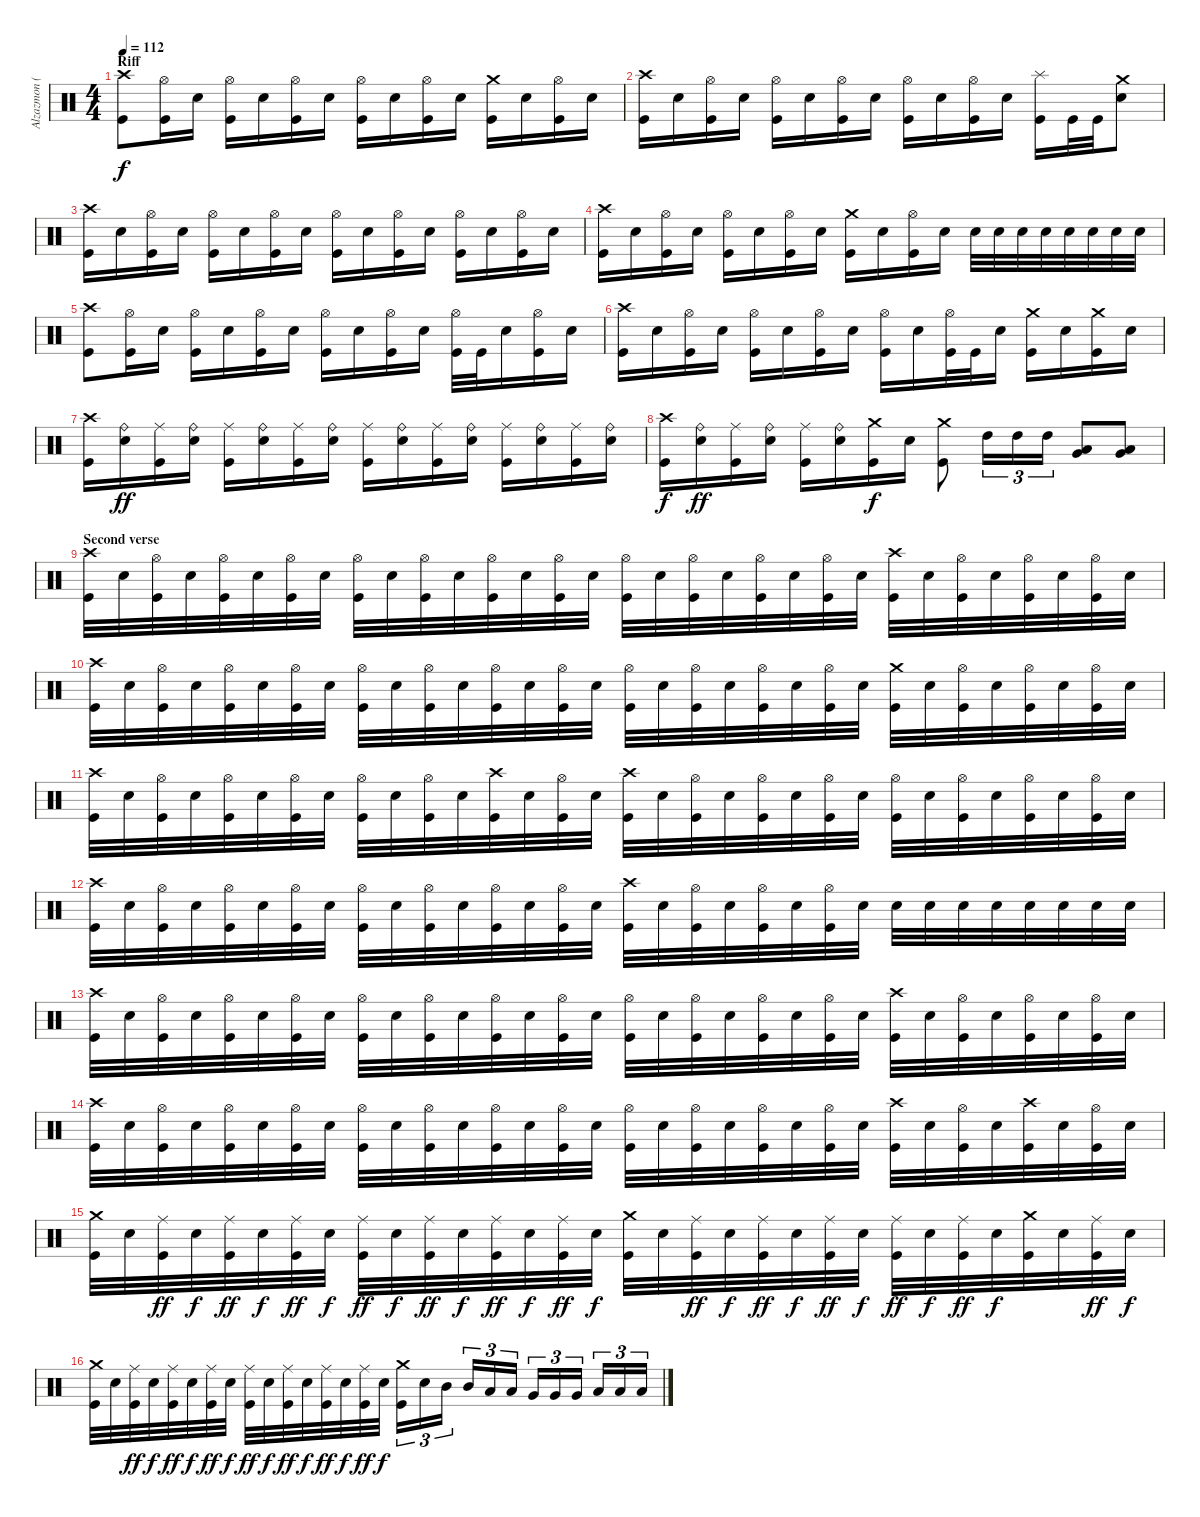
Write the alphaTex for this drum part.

\track ("Alzazmon (Drums)" "Alzazmon (") {instrument percussion}
\staff {score}
\articulation defaults
\ts (4 4)
\section ("" "Riff")
\tempo 112
\clef neutral
\ks c
("Crash high (hit)" "Kick (hit)").8{dy f} ("Hi-Hat (open)" "Kick (hit)").16 "Electric Snare (hit)".16 ("Hi-Hat (open)" "Kick (hit)").16 "Electric Snare (hit)".16 ("Hi-Hat (open)" "Kick (hit)").16 "Electric Snare (hit)".16 ("Hi-Hat (open)" "Kick (hit)").16 "Electric Snare (hit)".16 ("Hi-Hat (open)" "Kick (hit)").16 "Electric Snare (hit)".16 ("Crash medium (hit)" "Kick (hit)").16 "Electric Snare (hit)".16 ("Hi-Hat (open)" "Kick (hit)").16 "Electric Snare (hit)".16 |
("Crash high (hit)" "Kick (hit)").16 "Electric Snare (hit)".16 ("Hi-Hat (open)" "Kick (hit)").16 "Electric Snare (hit)".16 ("Hi-Hat (open)" "Kick (hit)").16 "Electric Snare (hit)".16 ("Hi-Hat (open)" "Kick (hit)").16 "Electric Snare (hit)".16 ("Hi-Hat (open)" "Kick (hit)").16 "Electric Snare (hit)".16 ("Hi-Hat (open)" "Kick (hit)").16 "Electric Snare (hit)".16 ("Splash (hit)" "Kick (hit)").16 "Kick (hit)".32 "Kick (hit)".32 ("Crash medium (hit)" "Electric Snare (hit)").8 |
("Crash high (hit)" "Kick (hit)").16 "Electric Snare (hit)".16 ("Hi-Hat (open)" "Kick (hit)").16 "Electric Snare (hit)".16 ("Hi-Hat (open)" "Kick (hit)").16 "Electric Snare (hit)".16 ("Hi-Hat (open)" "Kick (hit)").16 "Electric Snare (hit)".16 ("Hi-Hat (open)" "Kick (hit)").16 "Electric Snare (hit)".16 ("Hi-Hat (open)" "Kick (hit)").16 "Electric Snare (hit)".16 ("Hi-Hat (open)" "Kick (hit)").16 "Electric Snare (hit)".16 ("Hi-Hat (open)" "Kick (hit)").16 "Electric Snare (hit)".16 |
("Crash high (hit)" "Kick (hit)").16 "Electric Snare (hit)".16 ("Hi-Hat (open)" "Kick (hit)").16 "Electric Snare (hit)".16 ("Hi-Hat (open)" "Kick (hit)").16 "Electric Snare (hit)".16 ("Hi-Hat (open)" "Kick (hit)").16 "Electric Snare (hit)".16 ("Crash medium (hit)" "Kick (hit)").16 "Electric Snare (hit)".16 ("Hi-Hat (open)" "Kick (hit)").16 "Electric Snare (hit)".16 "Electric Snare (hit)".32 "Electric Snare (hit)".32 "Electric Snare (hit)".32 "Electric Snare (hit)".32 "Electric Snare (hit)".32 "Electric Snare (hit)".32 "Electric Snare (hit)".32 "Electric Snare (hit)".32 |
("Crash high (hit)" "Kick (hit)").8 ("Hi-Hat (open)" "Kick (hit)").16 "Electric Snare (hit)".16 ("Hi-Hat (open)" "Kick (hit)").16 "Electric Snare (hit)".16 ("Hi-Hat (open)" "Kick (hit)").16 "Electric Snare (hit)".16 ("Hi-Hat (open)" "Kick (hit)").16 "Electric Snare (hit)".16 ("Hi-Hat (open)" "Kick (hit)").16 "Electric Snare (hit)".16 ("Hi-Hat (open)" "Kick (hit)").32 "Kick (hit)".32 "Electric Snare (hit)".16 ("Hi-Hat (open)" "Kick (hit)").16 "Electric Snare (hit)".16 |
("Crash high (hit)" "Kick (hit)").16 "Electric Snare (hit)".16 ("Hi-Hat (open)" "Kick (hit)").16 "Electric Snare (hit)".16 ("Hi-Hat (open)" "Kick (hit)").16 "Electric Snare (hit)".16 ("Hi-Hat (open)" "Kick (hit)").16 "Electric Snare (hit)".16 ("Hi-Hat (open)" "Kick (hit)").16 "Electric Snare (hit)".16 ("Hi-Hat (open)" "Kick (hit)").32 "Kick (hit)".32 "Electric Snare (hit)".16 ("Crash medium (hit)" "Kick (hit)").16 "Electric Snare (hit)".16 ("Crash medium (hit)" "Kick (hit)").16 "Electric Snare (hit)".16 |
("Crash high (hit)" "Kick (hit)").16 ("Ride (bell)" "Electric Snare (hit)").16{dy ff} ("Ride (middle)" "Kick (hit)").16 ("Ride (bell)" "Electric Snare (hit)").16 ("Ride (middle)" "Kick (hit)").16 ("Ride (bell)" "Electric Snare (hit)").16 ("Ride (middle)" "Kick (hit)").16 ("Ride (bell)" "Electric Snare (hit)").16 ("Ride (middle)" "Kick (hit)").16 ("Ride (bell)" "Electric Snare (hit)").16 ("Ride (middle)" "Kick (hit)").16 ("Ride (bell)" "Electric Snare (hit)").16 ("Ride (middle)" "Kick (hit)").16 ("Ride (bell)" "Electric Snare (hit)").16 ("Ride (middle)" "Kick (hit)").16 ("Ride (bell)" "Electric Snare (hit)").16 |
("Crash high (hit)" "Kick (hit)").16{dy f} ("Ride (bell)" "Electric Snare (hit)").16{dy ff} ("Ride (middle)" "Kick (hit)").16 ("Ride (bell)" "Electric Snare (hit)").16 ("Ride (middle)" "Kick (hit)").16 ("Ride (bell)" "Electric Snare (hit)").16 ("Crash medium (hit)" "Kick (hit)").16{dy f} "Electric Snare (hit)".16 ("Crash medium (hit)" "Kick (hit)").8 "High Tom (hit)".16{tu (3 2)} "High Tom (hit)".16{tu (3 2)} "High Tom (hit)".16{tu (3 2)} ("Low Tom (hit)" "Very Low Tom (hit)").8{bu 60} ("Low Tom (hit)" "Very Low Tom (hit)").8{bu 60} |
\section ("" "Second verse")
("Crash high (hit)" "Kick (hit)").32 "Electric Snare (hit)".32 ("Hi-Hat (open)" "Kick (hit)").32 "Electric Snare (hit)".32 ("Hi-Hat (open)" "Kick (hit)").32 "Electric Snare (hit)".32 ("Hi-Hat (open)" "Kick (hit)").32 "Electric Snare (hit)".32 ("Hi-Hat (open)" "Kick (hit)").32 "Electric Snare (hit)".32 ("Hi-Hat (open)" "Kick (hit)").32 "Electric Snare (hit)".32 ("Hi-Hat (open)" "Kick (hit)").32 "Electric Snare (hit)".32 ("Hi-Hat (open)" "Kick (hit)").32 "Electric Snare (hit)".32 ("Hi-Hat (open)" "Kick (hit)").32 "Electric Snare (hit)".32 ("Hi-Hat (open)" "Kick (hit)").32 "Electric Snare (hit)".32 ("Hi-Hat (open)" "Kick (hit)").32 "Electric Snare (hit)".32 ("Hi-Hat (open)" "Kick (hit)").32 "Electric Snare (hit)".32 ("Crash high (hit)" "Kick (hit)").32 "Electric Snare (hit)".32 ("Hi-Hat (open)" "Kick (hit)").32 "Electric Snare (hit)".32 ("Hi-Hat (open)" "Kick (hit)").32 "Electric Snare (hit)".32 ("Hi-Hat (open)" "Kick (hit)").32 "Electric Snare (hit)".32 |
("Crash high (hit)" "Kick (hit)").32 "Electric Snare (hit)".32 ("Hi-Hat (open)" "Kick (hit)").32 "Electric Snare (hit)".32 ("Hi-Hat (open)" "Kick (hit)").32 "Electric Snare (hit)".32 ("Hi-Hat (open)" "Kick (hit)").32 "Electric Snare (hit)".32 ("Hi-Hat (open)" "Kick (hit)").32 "Electric Snare (hit)".32 ("Hi-Hat (open)" "Kick (hit)").32 "Electric Snare (hit)".32 ("Hi-Hat (open)" "Kick (hit)").32 "Electric Snare (hit)".32 ("Hi-Hat (open)" "Kick (hit)").32 "Electric Snare (hit)".32 ("Hi-Hat (open)" "Kick (hit)").32 "Electric Snare (hit)".32 ("Hi-Hat (open)" "Kick (hit)").32 "Electric Snare (hit)".32 ("Hi-Hat (open)" "Kick (hit)").32 "Electric Snare (hit)".32 ("Hi-Hat (open)" "Kick (hit)").32 "Electric Snare (hit)".32 ("Crash medium (hit)" "Kick (hit)").32 "Electric Snare (hit)".32 ("Hi-Hat (open)" "Kick (hit)").32 "Electric Snare (hit)".32 ("Hi-Hat (open)" "Kick (hit)").32 "Electric Snare (hit)".32 ("Hi-Hat (open)" "Kick (hit)").32 "Electric Snare (hit)".32 |
("Crash high (hit)" "Kick (hit)").32 "Electric Snare (hit)".32 ("Hi-Hat (open)" "Kick (hit)").32 "Electric Snare (hit)".32 ("Hi-Hat (open)" "Kick (hit)").32 "Electric Snare (hit)".32 ("Hi-Hat (open)" "Kick (hit)").32 "Electric Snare (hit)".32 ("Hi-Hat (open)" "Kick (hit)").32 "Electric Snare (hit)".32 ("Hi-Hat (open)" "Kick (hit)").32 "Electric Snare (hit)".32 ("Crash high (hit)" "Kick (hit)").32 "Electric Snare (hit)".32 ("Hi-Hat (open)" "Kick (hit)").32 "Electric Snare (hit)".32 ("Crash high (hit)" "Kick (hit)").32 "Electric Snare (hit)".32 ("Hi-Hat (open)" "Kick (hit)").32 "Electric Snare (hit)".32 ("Hi-Hat (open)" "Kick (hit)").32 "Electric Snare (hit)".32 ("Hi-Hat (open)" "Kick (hit)").32 "Electric Snare (hit)".32 ("Hi-Hat (open)" "Kick (hit)").32 "Electric Snare (hit)".32 ("Hi-Hat (open)" "Kick (hit)").32 "Electric Snare (hit)".32 ("Hi-Hat (open)" "Kick (hit)").32 "Electric Snare (hit)".32 ("Hi-Hat (open)" "Kick (hit)").32 "Electric Snare (hit)".32 |
("Crash high (hit)" "Kick (hit)").32 "Electric Snare (hit)".32 ("Hi-Hat (open)" "Kick (hit)").32 "Electric Snare (hit)".32 ("Hi-Hat (open)" "Kick (hit)").32 "Electric Snare (hit)".32 ("Hi-Hat (open)" "Kick (hit)").32 "Electric Snare (hit)".32 ("Hi-Hat (open)" "Kick (hit)").32 "Electric Snare (hit)".32 ("Hi-Hat (open)" "Kick (hit)").32 "Electric Snare (hit)".32 ("Hi-Hat (open)" "Kick (hit)").32 "Electric Snare (hit)".32 ("Hi-Hat (open)" "Kick (hit)").32 "Electric Snare (hit)".32 ("Crash high (hit)" "Kick (hit)").32 "Electric Snare (hit)".32 ("Hi-Hat (open)" "Kick (hit)").32 "Electric Snare (hit)".32 ("Hi-Hat (open)" "Kick (hit)").32 "Electric Snare (hit)".32 ("Hi-Hat (open)" "Kick (hit)").32 "Electric Snare (hit)".32 "Electric Snare (hit)".32 "Electric Snare (hit)".32 "Electric Snare (hit)".32 "Electric Snare (hit)".32 "Electric Snare (hit)".32 "Electric Snare (hit)".32 "Electric Snare (hit)".32 "Electric Snare (hit)".32 |
("Crash high (hit)" "Kick (hit)").32 "Electric Snare (hit)".32 ("Hi-Hat (open)" "Kick (hit)").32 "Electric Snare (hit)".32 ("Hi-Hat (open)" "Kick (hit)").32 "Electric Snare (hit)".32 ("Hi-Hat (open)" "Kick (hit)").32 "Electric Snare (hit)".32 ("Hi-Hat (open)" "Kick (hit)").32 "Electric Snare (hit)".32 ("Hi-Hat (open)" "Kick (hit)").32 "Electric Snare (hit)".32 ("Hi-Hat (open)" "Kick (hit)").32 "Electric Snare (hit)".32 ("Hi-Hat (open)" "Kick (hit)").32 "Electric Snare (hit)".32 ("Hi-Hat (open)" "Kick (hit)").32 "Electric Snare (hit)".32 ("Hi-Hat (open)" "Kick (hit)").32 "Electric Snare (hit)".32 ("Hi-Hat (open)" "Kick (hit)").32 "Electric Snare (hit)".32 ("Hi-Hat (open)" "Kick (hit)").32 "Electric Snare (hit)".32 ("Crash high (hit)" "Kick (hit)").32 "Electric Snare (hit)".32 ("Hi-Hat (open)" "Kick (hit)").32 "Electric Snare (hit)".32 ("Hi-Hat (open)" "Kick (hit)").32 "Electric Snare (hit)".32 ("Hi-Hat (open)" "Kick (hit)").32 "Electric Snare (hit)".32 |
("Crash high (hit)" "Kick (hit)").32 "Electric Snare (hit)".32 ("Hi-Hat (open)" "Kick (hit)").32 "Electric Snare (hit)".32 ("Hi-Hat (open)" "Kick (hit)").32 "Electric Snare (hit)".32 ("Hi-Hat (open)" "Kick (hit)").32 "Electric Snare (hit)".32 ("Hi-Hat (open)" "Kick (hit)").32 "Electric Snare (hit)".32 ("Hi-Hat (open)" "Kick (hit)").32 "Electric Snare (hit)".32 ("Hi-Hat (open)" "Kick (hit)").32 "Electric Snare (hit)".32 ("Hi-Hat (open)" "Kick (hit)").32 "Electric Snare (hit)".32 ("Hi-Hat (open)" "Kick (hit)").32 "Electric Snare (hit)".32 ("Hi-Hat (open)" "Kick (hit)").32 "Electric Snare (hit)".32 ("Hi-Hat (open)" "Kick (hit)").32 "Electric Snare (hit)".32 ("Hi-Hat (open)" "Kick (hit)").32 "Electric Snare (hit)".32 ("Crash high (hit)" "Kick (hit)").32 "Electric Snare (hit)".32 ("Hi-Hat (open)" "Kick (hit)").32 "Electric Snare (hit)".32 ("Crash high (hit)" "Kick (hit)").32 "Electric Snare (hit)".32 ("Hi-Hat (open)" "Kick (hit)").32 "Electric Snare (hit)".32 |
("Crash medium (hit)" "Kick (hit)").32 "Electric Snare (hit)".32 ("Ride (middle)" "Kick (hit)").32{dy ff} "Electric Snare (hit)".32{dy f} ("Ride (middle)" "Kick (hit)").32{dy ff} "Electric Snare (hit)".32{dy f} ("Ride (middle)" "Kick (hit)").32{dy ff} "Electric Snare (hit)".32{dy f} ("Ride (middle)" "Kick (hit)").32{dy ff} "Electric Snare (hit)".32{dy f} ("Ride (middle)" "Kick (hit)").32{dy ff} "Electric Snare (hit)".32{dy f} ("Ride (middle)" "Kick (hit)").32{dy ff} "Electric Snare (hit)".32{dy f} ("Ride (middle)" "Kick (hit)").32{dy ff} "Electric Snare (hit)".32{dy f} ("Crash medium (hit)" "Kick (hit)").32 "Electric Snare (hit)".32 ("Ride (middle)" "Kick (hit)").32{dy ff} "Electric Snare (hit)".32{dy f} ("Ride (middle)" "Kick (hit)").32{dy ff} "Electric Snare (hit)".32{dy f} ("Ride (middle)" "Kick (hit)").32{dy ff} "Electric Snare (hit)".32{dy f} ("Ride (middle)" "Kick (hit)").32{dy ff} "Electric Snare (hit)".32{dy f} ("Ride (middle)" "Kick (hit)").32{dy ff} "Electric Snare (hit)".32{dy f} ("Crash medium (hit)" "Kick (hit)").32 "Electric Snare (hit)".32 ("Ride (middle)" "Kick (hit)").32{dy ff} "Electric Snare (hit)".32{dy f} |
("Crash medium (hit)" "Kick (hit)").32 "Electric Snare (hit)".32 ("Ride (middle)" "Kick (hit)").32{dy ff} "Electric Snare (hit)".32{dy f} ("Ride (middle)" "Kick (hit)").32{dy ff} "Electric Snare (hit)".32{dy f} ("Ride (middle)" "Kick (hit)").32{dy ff} "Electric Snare (hit)".32{dy f} ("Ride (middle)" "Kick (hit)").32{dy ff} "Electric Snare (hit)".32{dy f} ("Ride (middle)" "Kick (hit)").32{dy ff} "Electric Snare (hit)".32{dy f} ("Ride (middle)" "Kick (hit)").32{dy ff} "Electric Snare (hit)".32{dy f} ("Ride (middle)" "Kick (hit)").32{dy ff} "Electric Snare (hit)".32{dy f} ("Crash medium (hit)" "Kick (hit)").16{tu (3 2)} "Electric Snare (hit)".16{tu (3 2)} "Mid Tom (hit)".16{tu (3 2)} "Mid Tom (hit)".16{tu (3 2)} "Low Tom (hit)".16{tu (3 2)} "Low Tom (hit)".16{tu (3 2)} "Very Low Tom (hit)".16{tu (3 2)} "Very Low Tom (hit)".16{tu (3 2)} "Very Low Tom (hit)".16{tu (3 2)} "Low Floor Tom (hit)".16{tu (3 2)} "Low Floor Tom (hit)".16{tu (3 2)} "Low Floor Tom (hit)".16{tu (3 2)}
